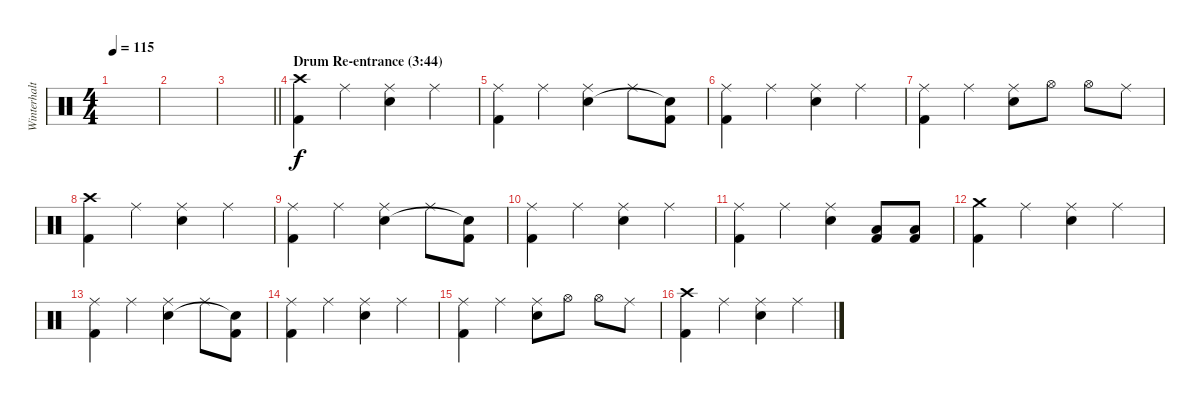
\track ("Winterhalten" "Winterhalt") {instrument percussion}
\staff {score}
\articulation defaults
\ts (4 4)
\tempo 115
\clef neutral
\ks c
|
|
\barLineRight lightlight
|
\section ("" "Drum Re-entrance (3:44)")
("Kick (hit) 2" "Crash high (hit)").4 "Ride (middle)".4 ("Ride (middle)" "Snare (hit) 2").4 "Ride (middle)".4 |
("Kick (hit) 2" "Ride (middle)").4 "Ride (middle)".4 ("Ride (middle)" "Snare (hit) 2").4 "Ride (middle)".8 ("Kick (hit) 2" "Snare (hit)"{t}).8 |
("Kick (hit) 2" "Ride (middle)").4 "Ride (middle)".4 ("Ride (middle)" "Snare (hit) 2").4 "Ride (middle)".4 |
("Kick (hit) 2" "Ride (middle)").4 "Ride (middle)".4 ("Ride (middle)" "Snare (hit) 2").8 "Hi-Hat (open)".8 "Hi-Hat (open)".8 "Ride (middle)".8 |
("Kick (hit) 2" "Crash high (hit)").4 "Ride (middle)".4 ("Ride (middle)" "Snare (hit) 2").4 "Ride (middle)".4 |
("Kick (hit) 2" "Ride (middle)").4 "Ride (middle)".4 ("Ride (middle)" "Snare (hit) 2").4 "Ride (middle)".8 ("Kick (hit) 2" "Snare (hit)"{t}).8 |
("Kick (hit) 2" "Ride (middle)").4 "Ride (middle)".4 ("Ride (middle)" "Snare (hit) 2").4 "Ride (middle)".4 |
("Kick (hit) 2" "Ride (middle)").4 "Ride (middle)".4 ("Ride (middle)" "Snare (hit) 2").4 ("Low Tom (hit)" "Kick (hit) 2").8 ("Low Tom (hit)" "Kick (hit) 2").8 |
("Kick (hit) 2" "Crash medium (hit)").4 "Ride (middle)".4 ("Ride (middle)" "Snare (hit) 2").4 "Ride (middle)".4 |
("Kick (hit) 2" "Ride (middle)").4 "Ride (middle)".4 ("Ride (middle)" "Snare (hit) 2").4 "Ride (middle)".8 ("Kick (hit) 2" "Snare (hit)"{t}).8 |
("Kick (hit) 2" "Ride (middle)").4 "Ride (middle)".4 ("Ride (middle)" "Snare (hit) 2").4 "Ride (middle)".4 |
("Kick (hit) 2" "Ride (middle)").4 "Ride (middle)".4 ("Ride (middle)" "Snare (hit) 2").8 "Hi-Hat (open)".8 "Hi-Hat (open)".8 "Ride (middle)".8 |
("Kick (hit) 2" "Crash high (hit)").4 "Ride (middle)".4 ("Ride (middle)" "Snare (hit) 2").4 "Ride (middle)".4
